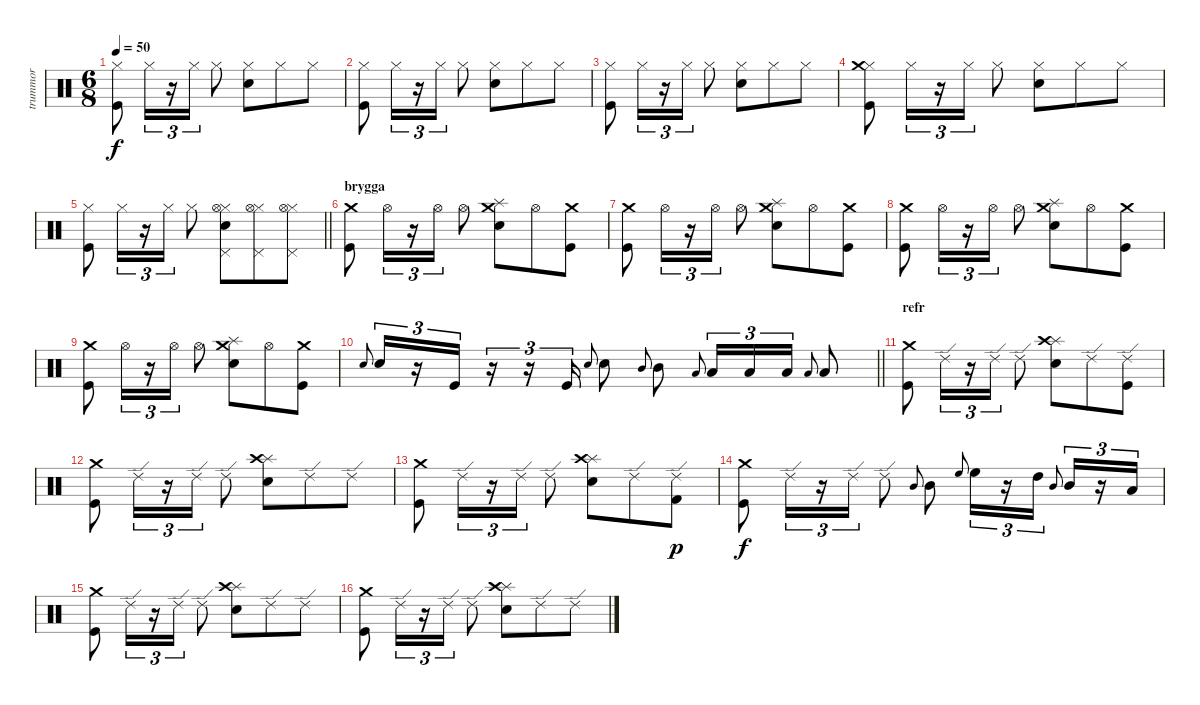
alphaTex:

\track ("trummor" "trummor") {instrument percussion}
\staff {score}
\articulation defaults
\ts (6 8)
\tempo 50
\clef neutral
\ks c
("Kick (hit)" "Hi-Hat (closed)").8{dy f} "Hi-Hat (closed)".16{tu (3 2)} r.16{tu (3 2)} "Hi-Hat (closed)".16{tu (3 2)} "Hi-Hat (closed)".8 ("Snare (hit) 2" "Hi-Hat (closed)").8 "Hi-Hat (closed)".8 "Hi-Hat (closed)".8 |
("Kick (hit)" "Hi-Hat (closed)").8 "Hi-Hat (closed)".16{tu (3 2)} r.16{tu (3 2)} "Hi-Hat (closed)".16{tu (3 2)} "Hi-Hat (closed)".8 ("Snare (hit) 2" "Hi-Hat (closed)").8 "Hi-Hat (closed)".8 "Hi-Hat (closed)".8 |
("Kick (hit)" "Hi-Hat (closed)").8 "Hi-Hat (closed)".16{tu (3 2)} r.16{tu (3 2)} "Hi-Hat (closed)".16{tu (3 2)} "Hi-Hat (closed)".8 ("Snare (hit) 2" "Hi-Hat (closed)").8 "Hi-Hat (closed)".8 "Hi-Hat (closed)".8 |
("Kick (hit)" "Hi-Hat (closed)" "Crash medium (hit)").8 "Hi-Hat (closed)".16{tu (3 2)} r.16{tu (3 2)} "Hi-Hat (closed)".16{tu (3 2)} "Hi-Hat (closed)".8 ("Snare (hit) 2" "Hi-Hat (closed)").8 "Hi-Hat (closed)".8 "Hi-Hat (closed)".8 |
\barLineRight lightlight
("Kick (hit)" "Hi-Hat (closed)").8 "Hi-Hat (closed)".16{tu (3 2)} r.16{tu (3 2)} "Hi-Hat (closed)".16{tu (3 2)} "Hi-Hat (closed)".8 ("Snare (hit) 2" "Hi-Hat (closed)" "Pedal Hi-Hat (hit)" "Hi-Hat (open)").8 ("Hi-Hat (closed)" "Pedal Hi-Hat (hit)" "Hi-Hat (open)").8 ("Hi-Hat (closed)" "Pedal Hi-Hat (hit)" "Hi-Hat (open)").8 |
\section ("" "brygga")
("Kick (hit)" "Crash medium (hit)").8 "Hi-Hat (open)".16{tu (3 2)} r.16{tu (3 2)} "Hi-Hat (open)".16{tu (3 2)} "Hi-Hat (open)".8 ("Splash (hit)" "Electric Snare (hit)" "Crash medium (hit)").8 "Hi-Hat (open)".8 ("Kick (hit)" "Crash medium (hit)").8 |
("Kick (hit)" "Crash medium (hit)").8 "Hi-Hat (open)".16{tu (3 2)} r.16{tu (3 2)} "Hi-Hat (open)".16{tu (3 2)} "Hi-Hat (open)".8 ("Splash (hit)" "Electric Snare (hit)" "Crash medium (hit)").8 "Hi-Hat (open)".8 ("Kick (hit)" "Crash medium (hit)").8 |
("Kick (hit)" "Crash medium (hit)").8 "Hi-Hat (open)".16{tu (3 2)} r.16{tu (3 2)} "Hi-Hat (open)".16{tu (3 2)} "Hi-Hat (open)".8 ("Splash (hit)" "Electric Snare (hit)" "Crash medium (hit)").8 "Hi-Hat (open)".8 ("Kick (hit)" "Crash medium (hit)").8 |
("Kick (hit)" "Crash medium (hit)").8 "Hi-Hat (open)".16{tu (3 2)} r.16{tu (3 2)} "Hi-Hat (open)".16{tu (3 2)} "Hi-Hat (open)".8 ("Splash (hit)" "Electric Snare (hit)" "Crash medium (hit)").8 "Hi-Hat (open)".8 ("Kick (hit)" "Crash medium (hit)").8 |
\barLineRight lightlight "Electric Snare (hit)".8{gr onbeat} "Electric Snare (hit)".16{tu (3 2)}
r.16{tu (3 2)} "Kick (hit)".16{tu (3 2)} r.16{tu (3 2)} r.16{tu (3 2)} "Kick (hit)".16{tu (3 2)} "Electric Snare (hit)".8{gr onbeat} "Snare (hit) 2".8 "Mid Tom (hit)".8{gr onbeat} "Mid Tom (hit)".8 "Low Tom (hit)".8{gr onbeat} "Low Tom (hit)".16{tu (3 2)} "Low Tom (hit)".16{tu (3 2)} "Low Tom (hit)".16{tu (3 2)} "Low Floor Tom (hit)".8{gr onbeat} "Low Floor Tom (hit)".8 |
\section ("" "refr")
("Kick (hit)" "Crash medium (hit)").8 "Ride (edge) 2".16{tu (3 2)} r.16{tu (3 2)} "Ride (edge) 2".16{tu (3 2)} "Ride (edge) 2".8 ("Splash (hit)" "Snare (hit) 2" "Crash high (hit)").8 "Ride (edge) 2".8 ("Ride (edge) 2" "Kick (hit)").8 |
("Kick (hit)" "Crash medium (hit)").8 "Ride (edge) 2".16{tu (3 2)} r.16{tu (3 2)} "Ride (edge) 2".16{tu (3 2)} "Ride (edge) 2".8 ("Splash (hit)" "Snare (hit) 2" "Crash high (hit)").8 "Ride (edge) 2".8 "Ride (edge) 2".8 |
("Kick (hit)" "Crash medium (hit)").8 "Ride (edge) 2".16{tu (3 2)} r.16{tu (3 2)} "Ride (edge) 2".16{tu (3 2)} "Ride (edge) 2".8 ("Splash (hit)" "Snare (hit) 2" "Crash high (hit)").8 "Ride (edge) 2".8 ("Ride (edge) 2" "Kick (hit) 2").8{dy p} |
("Kick (hit)" "Crash medium (hit)").8{dy f} "Ride (edge) 2".16{tu (3 2)} r.16{tu (3 2)} "Ride (edge) 2".16{tu (3 2)} "Ride (edge) 2".8 "Mid Tom (hit)".8{gr onbeat} "Mid Tom (hit)".8 "High Floor Tom (hit)".8{gr onbeat} "High Floor Tom (hit)".16{tu (3 2)} r.16{tu (3 2)} "High Tom (hit)".16{tu (3 2)} "Mid Tom (hit)".8{gr onbeat} "Mid Tom (hit)".16{tu (3 2)} r.16{tu (3 2)} "Low Tom (hit)".16{tu (3 2)} |
("Kick (hit)" "Crash medium (hit)").8 "Ride (edge) 2".16{tu (3 2)} r.16{tu (3 2)} "Ride (edge) 2".16{tu (3 2)} "Ride (edge) 2".8 ("Splash (hit)" "Snare (hit) 2" "Crash high (hit)").8 "Ride (edge) 2".8 "Ride (edge) 2".8 |
("Kick (hit)" "Crash medium (hit)").8 "Ride (edge) 2".16{tu (3 2)} r.16{tu (3 2)} "Ride (edge) 2".16{tu (3 2)} "Ride (edge) 2".8 ("Splash (hit)" "Snare (hit) 2" "Crash high (hit)").8 "Ride (edge) 2".8 "Ride (edge) 2".8
